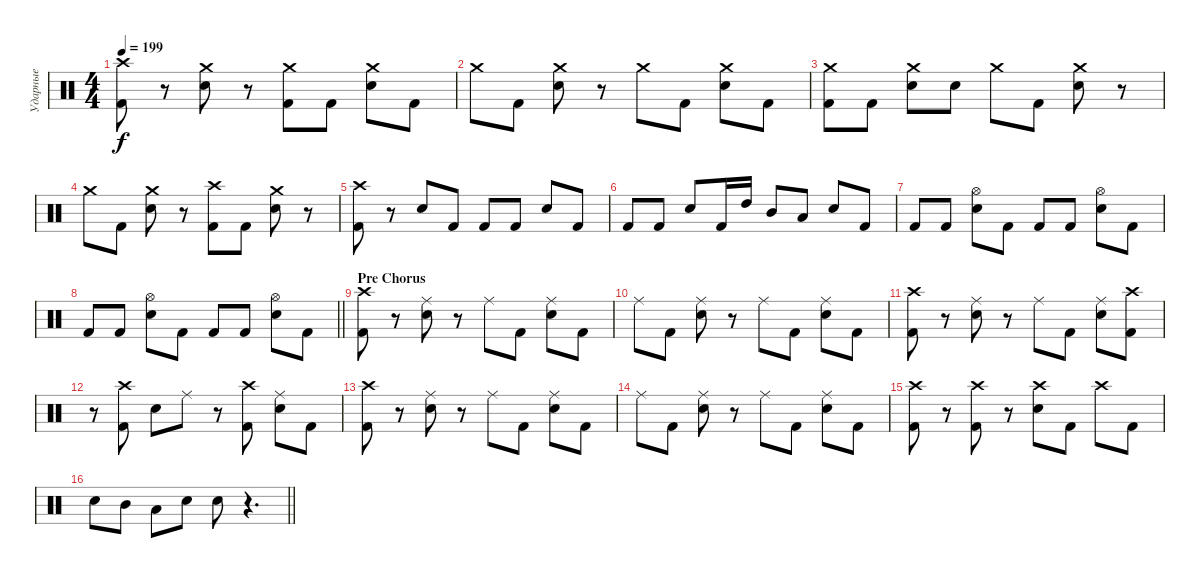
\track ("Ударные" "Ударные") {instrument percussion}
\staff {score}
\articulation defaults
\ts (4 4)
\tempo 199
\clef neutral
\ks c
("Crash high (hit)" "Kick (hit) 2").8{dy f} r.8 ("Crash medium (hit)" "Electric Snare (hit)").8 r.8 ("Crash medium (hit)" "Kick (hit) 2").8 "Kick (hit) 2".8 ("Crash medium (hit)" "Electric Snare (hit)").8 "Kick (hit) 2".8 |
"Crash medium (hit)".8 "Kick (hit) 2".8 ("Crash medium (hit)" "Electric Snare (hit)").8 r.8 "Crash medium (hit)".8 "Kick (hit) 2".8 ("Crash medium (hit)" "Electric Snare (hit)").8 "Kick (hit) 2".8 |
("Crash medium (hit)" "Kick (hit) 2").8 "Kick (hit) 2".8 ("Crash medium (hit)" "Electric Snare (hit)").8 "Electric Snare (hit)".8 "Crash medium (hit)".8 "Kick (hit) 2".8 ("Crash medium (hit)" "Electric Snare (hit)").8 r.8 |
"Crash medium (hit)".8 "Kick (hit) 2".8 ("Crash medium (hit)" "Electric Snare (hit)").8 r.8 ("Crash high (hit)" "Kick (hit) 2").8 "Kick (hit) 2".8 ("Crash medium (hit)" "Electric Snare (hit)").8 r.8 |
("Crash high (hit)" "Kick (hit) 2").8 r.8 "Electric Snare (hit)".8 "Kick (hit) 2".8 "Kick (hit) 2".8 "Kick (hit) 2".8 "Electric Snare (hit)".8 "Kick (hit) 2".8 |
"Kick (hit) 2".8 "Kick (hit) 2".8 "Electric Snare (hit)".8 "Kick (hit) 2".16 "High Tom (hit)".16 "Mid Tom (hit)".8 "Low Tom (hit)".8 "Electric Snare (hit)".8 "Kick (hit) 2".8 |
"Kick (hit) 2".8 "Kick (hit) 2".8 ("Hi-Hat (open)" "Electric Snare (hit)").8 "Kick (hit) 2".8 "Kick (hit) 2".8 "Kick (hit) 2".8 ("Hi-Hat (open)" "Electric Snare (hit)").8 "Kick (hit) 2".8 |
\barLineRight lightlight "Kick (hit) 2".8 "Kick (hit) 2".8
("Hi-Hat (open)" "Electric Snare (hit)").8 "Kick (hit) 2".8 "Kick (hit) 2".8 "Kick (hit) 2".8 ("Hi-Hat (open)" "Electric Snare (hit)").8 "Kick (hit) 2".8 |
\section ("" "Pre Chorus")
("Crash high (hit)" "Kick (hit) 2").8 r.8 ("Ride (middle)" "Electric Snare (hit)").8 r.8 "Ride (middle)".8 "Kick (hit) 2".8 ("Ride (middle)" "Electric Snare (hit)").8 "Kick (hit) 2".8 |
"Ride (middle)".8 "Kick (hit) 2".8 ("Ride (middle)" "Electric Snare (hit)").8 r.8 "Ride (middle)".8 "Kick (hit) 2".8 ("Ride (middle)" "Electric Snare (hit)").8 "Kick (hit) 2".8 |
("Crash high (hit)" "Kick (hit) 2").8 r.8 ("Ride (middle)" "Electric Snare (hit)").8 r.8 "Ride (middle)".8 "Kick (hit) 2".8 ("Ride (middle)" "Electric Snare (hit)").8 ("Crash high (hit)" "Kick (hit) 2").8 |
r.8 ("Crash high (hit)" "Kick (hit) 2").8 "Electric Snare (hit)".8 "Ride (middle)".8 r.8 ("Crash high (hit)" "Kick (hit) 2").8 ("Ride (middle)" "Electric Snare (hit)").8 "Kick (hit) 2".8 |
("Crash high (hit)" "Kick (hit) 2").8 r.8 ("Ride (middle)" "Electric Snare (hit)").8 r.8 "Ride (middle)".8 "Kick (hit) 2".8 ("Ride (middle)" "Electric Snare (hit)").8 "Kick (hit) 2".8 |
"Ride (middle)".8 "Kick (hit) 2".8 ("Ride (middle)" "Electric Snare (hit)").8 r.8 "Ride (middle)".8 "Kick (hit) 2".8 ("Ride (middle)" "Electric Snare (hit)").8 "Kick (hit) 2".8 |
("Crash high (hit)" "Kick (hit) 2").8 r.8 ("Crash high (hit)" "Kick (hit) 2").8 r.8 ("Crash high (hit)" "Electric Snare (hit)").8 "Kick (hit) 2".8 "Crash high (hit)".8 "Kick (hit) 2".8 |
\barLineRight lightlight "Electric Snare (hit)".8 "Mid Tom (hit)".8 "Low Tom (hit)".8 "Electric Snare (hit)".8 "Electric Snare (hit)".8
r.4{d}
